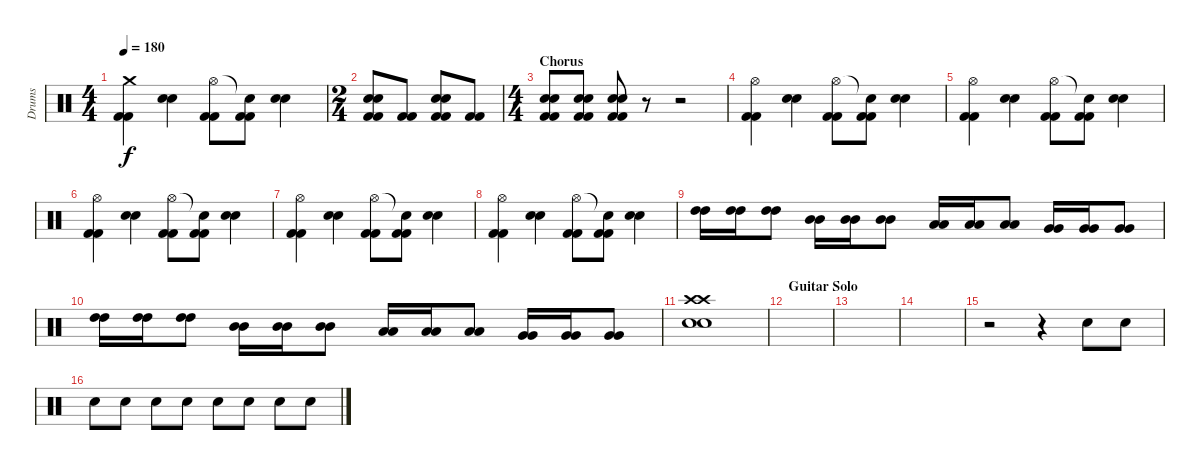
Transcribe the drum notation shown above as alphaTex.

\track ("Drums" "Drums") {instrument percussion}
\staff {score}
\articulation defaults
\ts (4 4)
\tempo 180
\clef neutral
\ks c
("Kick (hit) 2" "Kick (hit) 2" "Crash medium (hit)").4{dy f} ("Electric Snare (hit)" "Electric Snare (hit)").4 ("Kick (hit) 2" "Kick (hit) 2" "Hi-Hat (open)").8 ("Kick (hit) 2" "Kick (hit) 2" "Snare (hit)"{t}).8 ("Electric Snare (hit)" "Electric Snare (hit)").4 |
\ts (2 4)
("Kick (hit) 2" "Kick (hit) 2" "Electric Snare (hit)" "Electric Snare (hit)").8 ("Kick (hit) 2" "Kick (hit) 2").8 ("Kick (hit) 2" "Kick (hit) 2" "Electric Snare (hit)" "Electric Snare (hit)").8 ("Kick (hit) 2" "Kick (hit) 2").8 |
\ts (4 4)
\section ("" "Chorus")
("Kick (hit) 2" "Kick (hit) 2" "Snare (hit) 2" "Snare (hit) 2").8 ("Kick (hit) 2" "Kick (hit) 2" "Electric Snare (hit)" "Electric Snare (hit)").8 ("Kick (hit) 2" "Kick (hit) 2" "Snare (hit) 2" "Snare (hit) 2").8 r.8 r.2 |
("Kick (hit) 2" "Kick (hit) 2" "Hi-Hat (open)").4 ("Electric Snare (hit)" "Electric Snare (hit)").4 ("Kick (hit) 2" "Kick (hit) 2" "Hi-Hat (open)").8 ("Kick (hit) 2" "Kick (hit) 2" "Snare (hit)"{t}).8 ("Electric Snare (hit)" "Electric Snare (hit)").4 |
("Kick (hit) 2" "Kick (hit) 2" "Hi-Hat (open)").4 ("Electric Snare (hit)" "Electric Snare (hit)").4 ("Kick (hit) 2" "Kick (hit) 2" "Hi-Hat (open)").8 ("Kick (hit) 2" "Kick (hit) 2" "Snare (hit)"{t}).8 ("Electric Snare (hit)" "Electric Snare (hit)").4 |
("Kick (hit) 2" "Kick (hit) 2" "Hi-Hat (open)").4 ("Electric Snare (hit)" "Electric Snare (hit)").4 ("Kick (hit) 2" "Kick (hit) 2" "Hi-Hat (open)").8 ("Kick (hit) 2" "Kick (hit) 2" "Snare (hit)"{t}).8 ("Electric Snare (hit)" "Electric Snare (hit)").4 |
("Kick (hit) 2" "Kick (hit) 2" "Hi-Hat (open)").4 ("Electric Snare (hit)" "Electric Snare (hit)").4 ("Kick (hit) 2" "Kick (hit) 2" "Hi-Hat (open)").8 ("Kick (hit) 2" "Kick (hit) 2" "Snare (hit)"{t}).8 ("Electric Snare (hit)" "Electric Snare (hit)").4 |
("Kick (hit) 2" "Kick (hit) 2" "Hi-Hat (open)").4 ("Electric Snare (hit)" "Electric Snare (hit)").4 ("Kick (hit) 2" "Kick (hit) 2" "Hi-Hat (open)").8 ("Kick (hit) 2" "Kick (hit) 2" "Snare (hit)"{t}).8 ("Electric Snare (hit)" "Electric Snare (hit)").4 |
("High Tom (hit)" "High Tom (hit)").16 ("High Tom (hit)" "High Tom (hit)").16 ("High Tom (hit)" "High Tom (hit)").8 ("Mid Tom (hit)" "Mid Tom (hit)").16 ("Mid Tom (hit)" "Mid Tom (hit)").16 ("Mid Tom (hit)" "Mid Tom (hit)").8 ("Low Tom (hit)" "Low Tom (hit)").16 ("Low Tom (hit)" "Low Tom (hit)").16 ("Low Tom (hit)" "Low Tom (hit)").8 ("Very Low Tom (hit)" "Very Low Tom (hit)").16 ("Very Low Tom (hit)" "Very Low Tom (hit)").16 ("Very Low Tom (hit)" "Very Low Tom (hit)").8 |
("High Tom (hit)" "High Tom (hit)").16 ("High Tom (hit)" "High Tom (hit)").16 ("High Tom (hit)" "High Tom (hit)").8 ("Mid Tom (hit)" "Mid Tom (hit)").16 ("Mid Tom (hit)" "Mid Tom (hit)").16 ("Mid Tom (hit)" "Mid Tom (hit)").8 ("Low Tom (hit)" "Low Tom (hit)").16 ("Low Tom (hit)" "Low Tom (hit)").16 ("Low Tom (hit)" "Low Tom (hit)").8 ("Very Low Tom (hit)" "Very Low Tom (hit)").16 ("Very Low Tom (hit)" "Very Low Tom (hit)").16 ("Very Low Tom (hit)" "Very Low Tom (hit)").8 |
("Crash high (hit)" "Crash high (hit)" "Snare (hit) 2" "Snare (hit) 2").1 |
\section ("" "Guitar Solo")
|
|
|
r.2 r.4 "Electric Snare (hit)".8 "Snare (hit) 2".8 |
"Snare (hit) 2".8 "Snare (hit) 2".8 "Snare (hit) 2".8 "Snare (hit) 2".8 "Snare (hit) 2".8 "Snare (hit) 2".8 "Snare (hit) 2".8 "Snare (hit) 2".8
